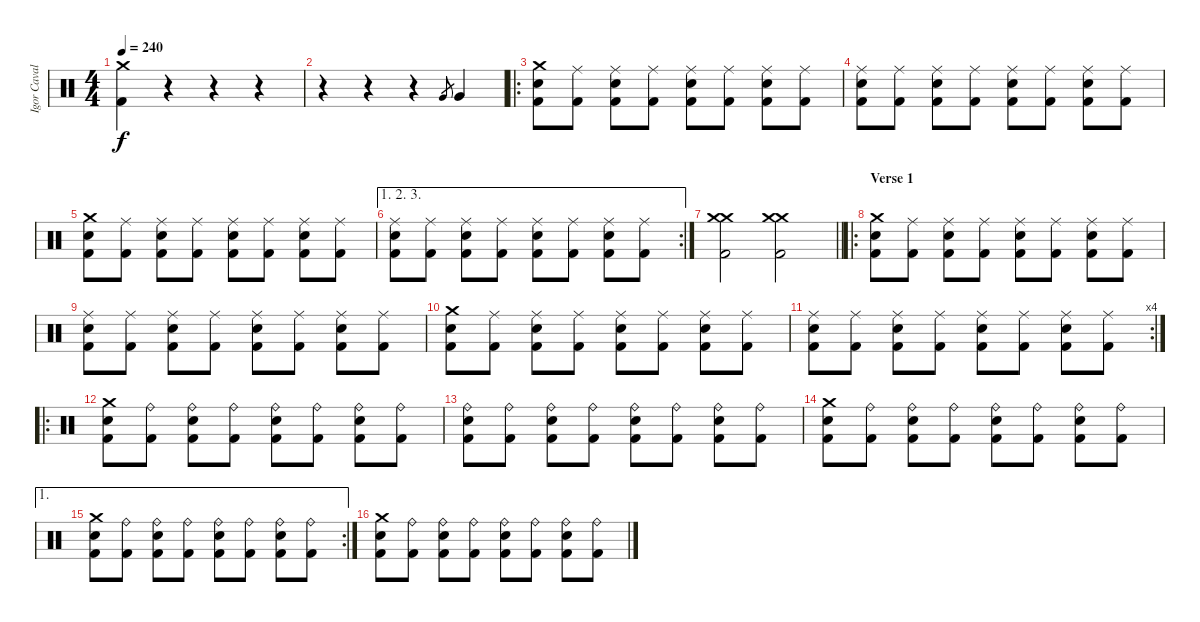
\track ("Igor Cavalera" "Igor Caval") {instrument percussion}
\staff {score}
\articulation defaults
\ts (4 4)
\tempo 240
\clef neutral
\ks c
("Kick (hit) 2" "Crash medium (hit)").4{dy f} r.4 r.4 r.4 |
r.4 r.4 r.4 "Very Low Tom (hit)".8{gr} "Very Low Tom (hit)".4 |
\ro
("Kick (hit) 2" "Snare (hit) 2" "Crash medium (hit)").8 ("Kick (hit) 2" "Ride (middle)").8 ("Kick (hit) 2" "Snare (hit) 2" "Ride (middle)").8 ("Kick (hit) 2" "Ride (middle)").8 ("Kick (hit) 2" "Snare (hit) 2" "Ride (middle)").8 ("Kick (hit) 2" "Ride (middle)").8 ("Kick (hit) 2" "Snare (hit) 2" "Ride (middle)").8 ("Kick (hit) 2" "Ride (middle)").8 |
("Kick (hit) 2" "Snare (hit) 2" "Ride (middle)").8 ("Kick (hit) 2" "Ride (middle)").8 ("Kick (hit) 2" "Snare (hit) 2" "Ride (middle)").8 ("Kick (hit) 2" "Ride (middle)").8 ("Kick (hit) 2" "Snare (hit) 2" "Ride (middle)").8 ("Kick (hit) 2" "Ride (middle)").8 ("Kick (hit) 2" "Snare (hit) 2" "Ride (middle)").8 ("Kick (hit) 2" "Ride (middle)").8 |
("Kick (hit) 2" "Snare (hit) 2" "Crash medium (hit)").8 ("Kick (hit) 2" "Ride (middle)").8 ("Kick (hit) 2" "Snare (hit) 2" "Ride (middle)").8 ("Kick (hit) 2" "Ride (middle)").8 ("Kick (hit) 2" "Snare (hit) 2" "Ride (middle)").8 ("Kick (hit) 2" "Ride (middle)").8 ("Kick (hit) 2" "Snare (hit) 2" "Ride (middle)").8 ("Kick (hit) 2" "Ride (middle)").8 |
\ae (1 2 3)
\rc 2
("Kick (hit) 2" "Snare (hit) 2" "Ride (middle)").8 ("Kick (hit) 2" "Ride (middle)").8 ("Kick (hit) 2" "Snare (hit) 2" "Ride (middle)").8 ("Kick (hit) 2" "Ride (middle)").8 ("Kick (hit) 2" "Snare (hit) 2" "Ride (middle)").8 ("Kick (hit) 2" "Ride (middle)").8 ("Kick (hit) 2" "Snare (hit) 2" "Ride (middle)").8 ("Kick (hit) 2" "Ride (middle)").8 |
\barLineRight lightlight
("Kick (hit) 2" "Crash medium (hit)" "Crash medium (hit)").2 ("Kick (hit) 2" "Crash medium (hit)" "Crash medium (hit)").2 |
\ro
\section ("" "Verse 1")
("Kick (hit) 2" "Snare (hit) 2" "Crash medium (hit)").8 ("Kick (hit) 2" "Ride (middle)").8 ("Kick (hit) 2" "Snare (hit) 2" "Ride (middle)").8 ("Kick (hit) 2" "Ride (middle)").8 ("Kick (hit) 2" "Snare (hit) 2" "Ride (middle)").8 ("Kick (hit) 2" "Ride (middle)").8 ("Kick (hit) 2" "Snare (hit) 2" "Ride (middle)").8 ("Kick (hit) 2" "Ride (middle)").8 |
("Kick (hit) 2" "Snare (hit) 2" "Ride (middle)").8 ("Kick (hit) 2" "Ride (middle)").8 ("Kick (hit) 2" "Snare (hit) 2" "Ride (middle)").8 ("Kick (hit) 2" "Ride (middle)").8 ("Kick (hit) 2" "Snare (hit) 2" "Ride (middle)").8 ("Kick (hit) 2" "Ride (middle)").8 ("Kick (hit) 2" "Snare (hit) 2" "Ride (middle)").8 ("Kick (hit) 2" "Ride (middle)").8 |
("Kick (hit) 2" "Snare (hit) 2" "Crash medium (hit)").8 ("Kick (hit) 2" "Ride (middle)").8 ("Kick (hit) 2" "Snare (hit) 2" "Ride (middle)").8 ("Kick (hit) 2" "Ride (middle)").8 ("Kick (hit) 2" "Snare (hit) 2" "Ride (middle)").8 ("Kick (hit) 2" "Ride (middle)").8 ("Kick (hit) 2" "Snare (hit) 2" "Ride (middle)").8 ("Kick (hit) 2" "Ride (middle)").8 |
\rc 4
("Kick (hit) 2" "Snare (hit) 2" "Ride (middle)").8 ("Kick (hit) 2" "Ride (middle)").8 ("Kick (hit) 2" "Snare (hit) 2" "Ride (middle)").8 ("Kick (hit) 2" "Ride (middle)").8 ("Kick (hit) 2" "Snare (hit) 2" "Ride (middle)").8 ("Kick (hit) 2" "Ride (middle)").8 ("Kick (hit) 2" "Snare (hit) 2" "Ride (middle)").8 ("Kick (hit) 2" "Ride (middle)").8 |
\ro
("Kick (hit) 2" "Snare (hit) 2" "Crash medium (hit)").8 ("Kick (hit) 2" "Ride (bell)").8 ("Kick (hit) 2" "Snare (hit) 2" "Ride (bell)").8 ("Kick (hit) 2" "Ride (bell)").8 ("Kick (hit) 2" "Snare (hit) 2" "Ride (bell)").8 ("Kick (hit) 2" "Ride (bell)").8 ("Kick (hit) 2" "Snare (hit) 2" "Ride (bell)").8 ("Kick (hit) 2" "Ride (bell)").8 |
("Kick (hit) 2" "Snare (hit) 2" "Ride (bell)").8 ("Kick (hit) 2" "Ride (bell)").8 ("Kick (hit) 2" "Snare (hit) 2" "Ride (bell)").8 ("Kick (hit) 2" "Ride (bell)").8 ("Kick (hit) 2" "Snare (hit) 2" "Ride (bell)").8 ("Kick (hit) 2" "Ride (bell)").8 ("Kick (hit) 2" "Snare (hit) 2" "Ride (bell)").8 ("Kick (hit) 2" "Ride (bell)").8 |
("Kick (hit) 2" "Snare (hit) 2" "Crash medium (hit)").8 ("Kick (hit) 2" "Ride (bell)").8 ("Kick (hit) 2" "Snare (hit) 2" "Ride (bell)").8 ("Kick (hit) 2" "Ride (bell)").8 ("Kick (hit) 2" "Snare (hit) 2" "Ride (bell)").8 ("Kick (hit) 2" "Ride (bell)").8 ("Kick (hit) 2" "Snare (hit) 2" "Ride (bell)").8 ("Kick (hit) 2" "Ride (bell)").8 |
\ae 1
\rc 2
("Kick (hit) 2" "Snare (hit) 2" "Crash medium (hit)").8 ("Kick (hit) 2" "Ride (bell)").8 ("Kick (hit) 2" "Snare (hit) 2" "Ride (bell)").8 ("Kick (hit) 2" "Ride (bell)").8 ("Kick (hit) 2" "Snare (hit) 2" "Ride (bell)").8 ("Kick (hit) 2" "Ride (bell)").8 ("Kick (hit) 2" "Snare (hit) 2" "Ride (bell)").8 ("Kick (hit) 2" "Ride (bell)").8 |
("Kick (hit) 2" "Snare (hit) 2" "Crash medium (hit)").8 ("Kick (hit) 2" "Ride (bell)").8 ("Kick (hit) 2" "Snare (hit) 2" "Ride (bell)").8 ("Kick (hit) 2" "Ride (bell)").8 ("Kick (hit) 2" "Snare (hit) 2" "Ride (bell)").8 ("Kick (hit) 2" "Ride (bell)").8 ("Kick (hit) 2" "Snare (hit) 2" "Ride (bell)").8 ("Kick (hit) 2" "Ride (bell)").8
